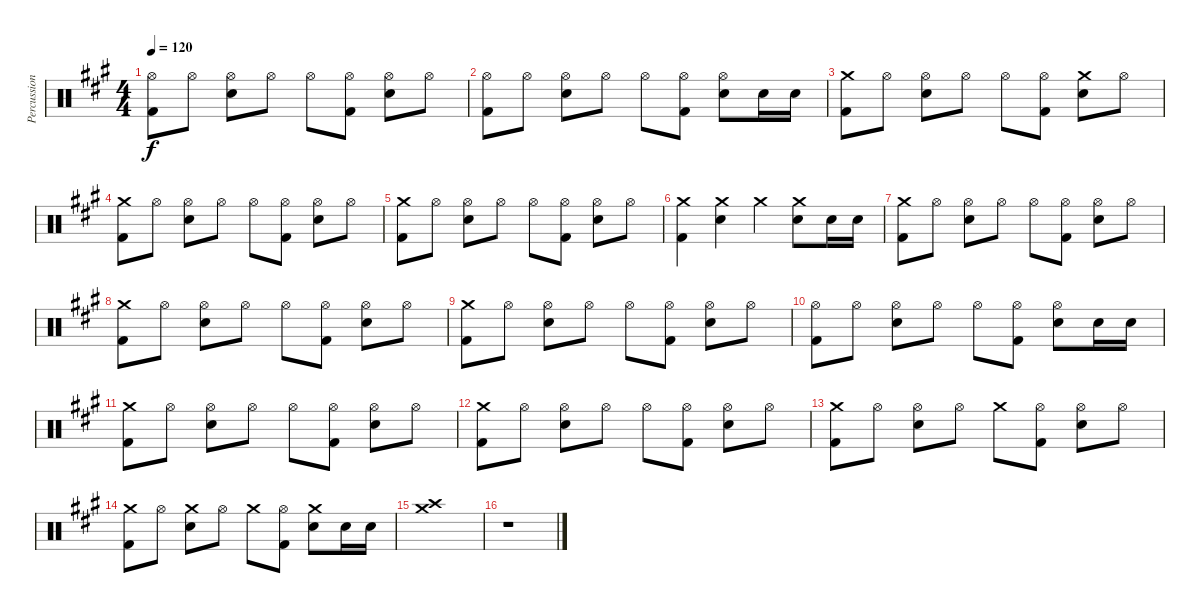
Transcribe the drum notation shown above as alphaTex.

\track ("Percussion" "Percussion") {instrument percussion}
\staff {score}
\articulation defaults
\ts (4 4)
\tempo 120
\clef neutral
\ks a
("Hi-Hat (open)" "Kick (hit) 2").8{dy f} "Hi-Hat (open)".8 ("Hi-Hat (open)" "Snare (hit) 2").8 "Hi-Hat (open)".8 "Hi-Hat (open)".8 ("Hi-Hat (open)" "Kick (hit) 2").8 ("Hi-Hat (open)" "Snare (hit) 2").8 "Hi-Hat (open)".8 |
("Hi-Hat (open)" "Kick (hit) 2").8 "Hi-Hat (open)".8 ("Hi-Hat (open)" "Snare (hit) 2").8 "Hi-Hat (open)".8 "Hi-Hat (open)".8 ("Hi-Hat (open)" "Kick (hit) 2").8 ("Hi-Hat (open)" "Snare (hit) 2").8 "Snare (hit) 2".16 "Snare (hit) 2".16 |
("Crash medium (hit)" "Kick (hit) 2").8 "Hi-Hat (open)".8 ("Hi-Hat (open)" "Snare (hit) 2").8 "Hi-Hat (open)".8 "Hi-Hat (open)".8 ("Hi-Hat (open)" "Kick (hit) 2").8 ("Crash medium (hit)" "Snare (hit) 2").8 "Hi-Hat (open)".8 |
("Crash medium (hit)" "Kick (hit) 2").8 "Hi-Hat (open)".8 ("Hi-Hat (open)" "Snare (hit) 2").8 "Hi-Hat (open)".8 "Hi-Hat (open)".8 ("Hi-Hat (open)" "Kick (hit) 2").8 ("Hi-Hat (open)" "Snare (hit) 2").8 "Hi-Hat (open)".8 |
("Crash medium (hit)" "Kick (hit) 2").8 "Hi-Hat (open)".8 ("Hi-Hat (open)" "Snare (hit) 2").8 "Hi-Hat (open)".8 "Hi-Hat (open)".8 ("Hi-Hat (open)" "Kick (hit) 2").8 ("Hi-Hat (open)" "Snare (hit) 2").8 "Hi-Hat (open)".8 |
("Crash medium (hit)" "Kick (hit) 2").4 ("Crash medium (hit)" "Snare (hit) 2").4 "Crash medium (hit)".4 ("Crash medium (hit)" "Snare (hit) 2").8 "Snare (hit) 2".16 "Snare (hit) 2".16 |
("Crash medium (hit)" "Kick (hit) 2").8 "Hi-Hat (open)".8 ("Hi-Hat (open)" "Snare (hit) 2").8 "Hi-Hat (open)".8 "Hi-Hat (open)".8 ("Hi-Hat (open)" "Kick (hit) 2").8 ("Hi-Hat (open)" "Snare (hit) 2").8 "Hi-Hat (open)".8 |
("Crash medium (hit)" "Kick (hit) 2").8 "Hi-Hat (open)".8 ("Hi-Hat (open)" "Snare (hit) 2").8 "Hi-Hat (open)".8 "Hi-Hat (open)".8 ("Hi-Hat (open)" "Kick (hit) 2").8 ("Hi-Hat (open)" "Snare (hit) 2").8 "Hi-Hat (open)".8 |
("Crash medium (hit)" "Kick (hit) 2").8 "Hi-Hat (open)".8 ("Hi-Hat (open)" "Snare (hit) 2").8 "Hi-Hat (open)".8 "Hi-Hat (open)".8 ("Hi-Hat (open)" "Kick (hit) 2").8 ("Hi-Hat (open)" "Snare (hit) 2").8 "Hi-Hat (open)".8 |
("Hi-Hat (open)" "Kick (hit) 2").8 "Hi-Hat (open)".8 ("Hi-Hat (open)" "Snare (hit) 2").8 "Hi-Hat (open)".8 "Hi-Hat (open)".8 ("Hi-Hat (open)" "Kick (hit) 2").8 ("Hi-Hat (open)" "Snare (hit) 2").8 "Snare (hit) 2".16 "Snare (hit) 2".16 |
("Crash medium (hit)" "Kick (hit) 2").8 "Hi-Hat (open)".8 ("Hi-Hat (open)" "Snare (hit) 2").8 "Hi-Hat (open)".8 "Hi-Hat (open)".8 ("Hi-Hat (open)" "Kick (hit) 2").8 ("Hi-Hat (open)" "Snare (hit) 2").8 "Hi-Hat (open)".8 |
("Crash medium (hit)" "Kick (hit) 2").8 "Hi-Hat (open)".8 ("Hi-Hat (open)" "Snare (hit) 2").8 "Hi-Hat (open)".8 "Hi-Hat (open)".8 ("Hi-Hat (open)" "Kick (hit) 2").8 ("Hi-Hat (open)" "Snare (hit) 2").8 "Hi-Hat (open)".8 |
("Crash medium (hit)" "Kick (hit) 2").8 "Hi-Hat (open)".8 ("Hi-Hat (open)" "Snare (hit) 2").8 "Hi-Hat (open)".8 "Crash medium (hit)".8 ("Hi-Hat (open)" "Kick (hit) 2").8 ("Hi-Hat (open)" "Snare (hit) 2").8 "Hi-Hat (open)".8 |
("Crash medium (hit)" "Kick (hit) 2").8 "Hi-Hat (open)".8 ("Crash medium (hit)" "Snare (hit) 2").8 "Hi-Hat (open)".8 "Crash medium (hit)".8 ("Hi-Hat (open)" "Kick (hit) 2").8 ("Crash medium (hit)" "Snare (hit) 2").8 "Snare (hit) 2".16 "Snare (hit) 2".16 |
("Crash medium (hit)" "Crash high (hit)").1 |
r.1
